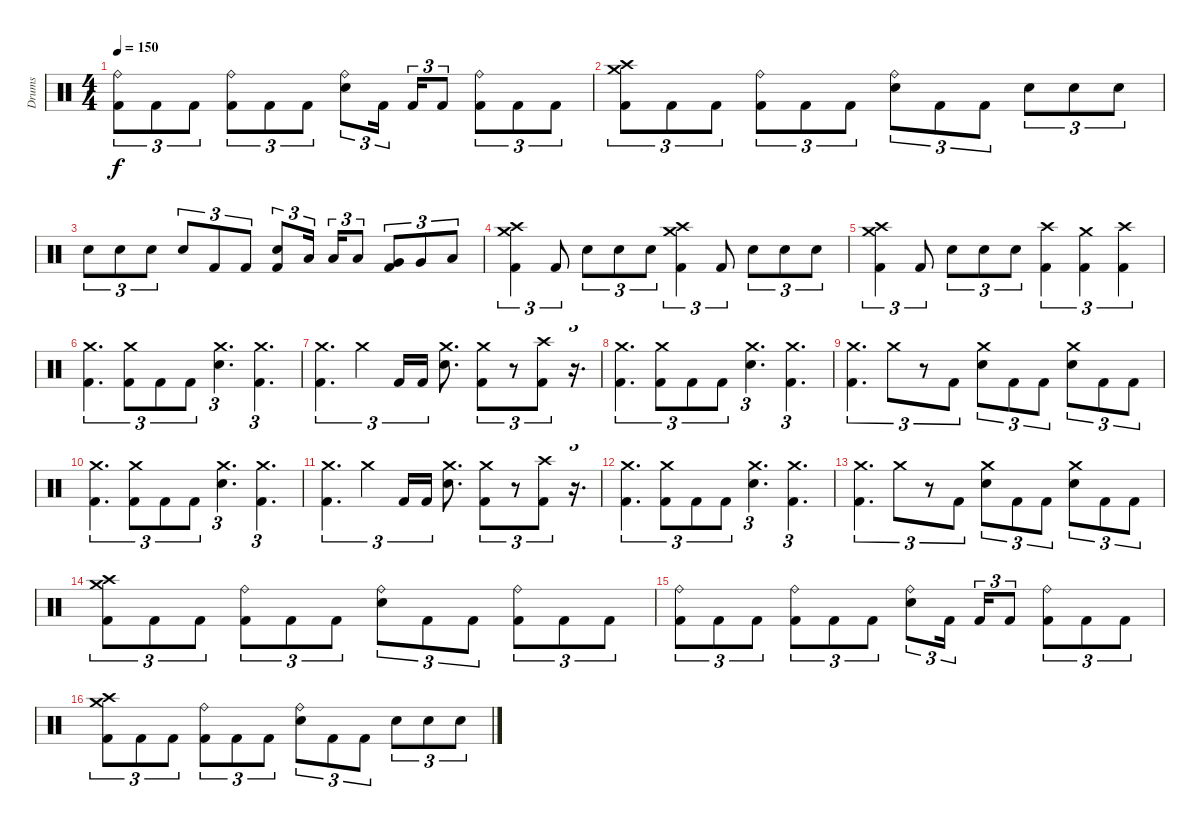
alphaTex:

\track ("Drums" "Drums") {instrument percussion}
\staff {score}
\articulation defaults
\ts (4 4)
\tempo 150
\clef neutral
\ks c
("Ride (bell)" "Kick (hit) 2").8{tu (3 2) dy f} "Kick (hit) 2".8{tu (3 2)} "Kick (hit) 2".8{tu (3 2)} ("Ride (bell)" "Kick (hit) 2").8{tu (3 2)} "Kick (hit) 2".8{tu (3 2)} "Kick (hit) 2".8{tu (3 2)} ("Ride (bell)" "Electric Snare (hit)").8{tu (3 2)} "Kick (hit) 2".16{tu (3 2) beam splitsecondary} "Kick (hit) 2".16{tu (3 2)} "Kick (hit) 2".8{tu (3 2)} ("Ride (bell)" "Kick (hit) 2").8{tu (3 2)} "Kick (hit) 2".8{tu (3 2)} "Kick (hit) 2".8{tu (3 2)} |
("Crash high (hit)" "Crash medium (hit)" "Kick (hit) 2").8{tu (3 2)} "Kick (hit) 2".8{tu (3 2)} "Kick (hit) 2".8{tu (3 2)} ("Ride (bell)" "Kick (hit) 2").8{tu (3 2)} "Kick (hit) 2".8{tu (3 2)} "Kick (hit) 2".8{tu (3 2)} ("Ride (bell)" "Electric Snare (hit)").8{tu (3 2)} "Kick (hit) 2".8{tu (3 2)} "Kick (hit) 2".8{tu (3 2)} "Electric Snare (hit)".8{tu (3 2)} "Electric Snare (hit)".8{tu (3 2)} "Electric Snare (hit)".8{tu (3 2)} |
"Electric Snare (hit)".8{tu (3 2)} "Electric Snare (hit)".8{tu (3 2)} "Electric Snare (hit)".8{tu (3 2)} "Electric Snare (hit)".8{tu (3 2)} "Kick (hit) 2".8{tu (3 2)} "Kick (hit) 2".8{tu (3 2)} ("Electric Snare (hit)" "Kick (hit) 2").8{tu (3 2)} "Low Tom (hit)".16{tu (3 2) beam splitsecondary} "Low Tom (hit)".16{tu (3 2)} "Low Tom (hit)".8{tu (3 2)} ("Very Low Tom (hit)" "Kick (hit) 2").8{tu (3 2)} "Very Low Tom (hit)".8{tu (3 2)} "Low Floor Tom (hit)".8{tu (3 2)} |
("Crash medium (hit)" "Crash high (hit)" "Kick (hit) 2").4{tu (3 2)} "Kick (hit) 2".8{tu (3 2)} "Electric Snare (hit)".8{tu (3 2)} "Electric Snare (hit)".8{tu (3 2)} "Electric Snare (hit)".8{tu (3 2)} ("Crash medium (hit)" "Crash high (hit)" "Kick (hit) 2").4{tu (3 2)} "Kick (hit) 2".8{tu (3 2)} "Electric Snare (hit)".8{tu (3 2)} "Electric Snare (hit)".8{tu (3 2)} "Electric Snare (hit)".8{tu (3 2)} |
("Crash medium (hit)" "Crash high (hit)" "Kick (hit) 2").4{tu (3 2)} "Kick (hit) 2".8{tu (3 2)} "Electric Snare (hit)".8{tu (3 2)} "Electric Snare (hit)".8{tu (3 2)} "Electric Snare (hit)".8{tu (3 2)} ("Crash high (hit)" "Kick (hit) 2").4{tu (3 2)} ("Crash medium (hit)" "Kick (hit) 2").4{tu (3 2)} ("Crash high (hit)" "Kick (hit) 2").4{tu (3 2)} |
("Crash medium (hit)" "Kick (hit) 2").4{d tu (3 2)} ("Crash medium (hit)" "Kick (hit) 2").8{tu (3 2)} "Kick (hit) 2".8{tu (3 2)} "Kick (hit) 2".8{tu (3 2)} ("Crash medium (hit)" "Electric Snare (hit)").4{d tu (3 2)} ("Crash medium (hit)" "Kick (hit) 2").4{d tu (3 2)} |
("Crash medium (hit)" "Kick (hit) 2").4{d tu (3 2)} "Crash medium (hit)".4{tu (3 2)} "Kick (hit) 2".16{tu (3 2)} "Kick (hit) 2".16{tu (3 2)} ("Crash medium (hit)" "Electric Snare (hit)").8{d} ("Crash medium (hit)" "Kick (hit) 2").8{tu (3 2)} r.8{tu (3 2)} ("Crash high (hit)" "Kick (hit) 2").8{tu (3 2)} r.16{d tu (3 2)} |
("Crash medium (hit)" "Kick (hit) 2").4{d tu (3 2)} ("Crash medium (hit)" "Kick (hit) 2").8{tu (3 2)} "Kick (hit) 2".8{tu (3 2)} "Kick (hit) 2".8{tu (3 2)} ("Crash medium (hit)" "Electric Snare (hit)").4{d tu (3 2)} ("Crash medium (hit)" "Kick (hit) 2").4{d tu (3 2)} |
("Crash medium (hit)" "Kick (hit) 2").4{d tu (3 2)} "Crash medium (hit)".8{tu (3 2)} r.8{tu (3 2)} "Kick (hit) 2".8{tu (3 2)} ("Crash medium (hit)" "Electric Snare (hit)").8{tu (3 2)} "Kick (hit) 2".8{tu (3 2)} "Kick (hit) 2".8{tu (3 2)} ("Crash medium (hit)" "Electric Snare (hit)").8{tu (3 2)} "Kick (hit) 2".8{tu (3 2)} "Kick (hit) 2".8{tu (3 2)} |
("Crash medium (hit)" "Kick (hit) 2").4{d tu (3 2)} ("Crash medium (hit)" "Kick (hit) 2").8{tu (3 2)} "Kick (hit) 2".8{tu (3 2)} "Kick (hit) 2".8{tu (3 2)} ("Crash medium (hit)" "Electric Snare (hit)").4{d tu (3 2)} ("Crash medium (hit)" "Kick (hit) 2").4{d tu (3 2)} |
("Crash medium (hit)" "Kick (hit) 2").4{d tu (3 2)} "Crash medium (hit)".4{tu (3 2)} "Kick (hit) 2".16{tu (3 2)} "Kick (hit) 2".16{tu (3 2)} ("Crash medium (hit)" "Electric Snare (hit)").8{d} ("Crash medium (hit)" "Kick (hit) 2").8{tu (3 2)} r.8{tu (3 2)} ("Crash high (hit)" "Kick (hit) 2").8{tu (3 2)} r.16{d tu (3 2)} |
("Crash medium (hit)" "Kick (hit) 2").4{d tu (3 2)} ("Crash medium (hit)" "Kick (hit) 2").8{tu (3 2)} "Kick (hit) 2".8{tu (3 2)} "Kick (hit) 2".8{tu (3 2)} ("Crash medium (hit)" "Electric Snare (hit)").4{d tu (3 2)} ("Crash medium (hit)" "Kick (hit) 2").4{d tu (3 2)} |
("Crash medium (hit)" "Kick (hit) 2").4{d tu (3 2)} "Crash medium (hit)".8{tu (3 2)} r.8{tu (3 2)} "Kick (hit) 2".8{tu (3 2)} ("Crash medium (hit)" "Electric Snare (hit)").8{tu (3 2)} "Kick (hit) 2".8{tu (3 2)} "Kick (hit) 2".8{tu (3 2)} ("Crash medium (hit)" "Electric Snare (hit)").8{tu (3 2)} "Kick (hit) 2".8{tu (3 2)} "Kick (hit) 2".8{tu (3 2)} |
("Crash high (hit)" "Crash medium (hit)" "Kick (hit) 2").8{tu (3 2)} "Kick (hit) 2".8{tu (3 2)} "Kick (hit) 2".8{tu (3 2)} ("Ride (bell)" "Kick (hit) 2").8{tu (3 2)} "Kick (hit) 2".8{tu (3 2)} "Kick (hit) 2".8{tu (3 2)} ("Ride (bell)" "Electric Snare (hit)").8{tu (3 2)} "Kick (hit) 2".8{tu (3 2)} "Kick (hit) 2".8{tu (3 2)} ("Ride (bell)" "Kick (hit) 2").8{tu (3 2)} "Kick (hit) 2".8{tu (3 2)} "Kick (hit) 2".8{tu (3 2)} |
("Ride (bell)" "Kick (hit) 2").8{tu (3 2)} "Kick (hit) 2".8{tu (3 2)} "Kick (hit) 2".8{tu (3 2)} ("Ride (bell)" "Kick (hit) 2").8{tu (3 2)} "Kick (hit) 2".8{tu (3 2)} "Kick (hit) 2".8{tu (3 2)} ("Ride (bell)" "Electric Snare (hit)").8{tu (3 2)} "Kick (hit) 2".16{tu (3 2) beam splitsecondary} "Kick (hit) 2".16{tu (3 2)} "Kick (hit) 2".8{tu (3 2)} ("Ride (bell)" "Kick (hit) 2").8{tu (3 2)} "Kick (hit) 2".8{tu (3 2)} "Kick (hit) 2".8{tu (3 2)} |
("Crash high (hit)" "Crash medium (hit)" "Kick (hit) 2").8{tu (3 2)} "Kick (hit) 2".8{tu (3 2)} "Kick (hit) 2".8{tu (3 2)} ("Ride (bell)" "Kick (hit) 2").8{tu (3 2)} "Kick (hit) 2".8{tu (3 2)} "Kick (hit) 2".8{tu (3 2)} ("Ride (bell)" "Electric Snare (hit)").8{tu (3 2)} "Kick (hit) 2".8{tu (3 2)} "Kick (hit) 2".8{tu (3 2)} "Electric Snare (hit)".8{tu (3 2)} "Electric Snare (hit)".8{tu (3 2)} "Electric Snare (hit)".8{tu (3 2)}
